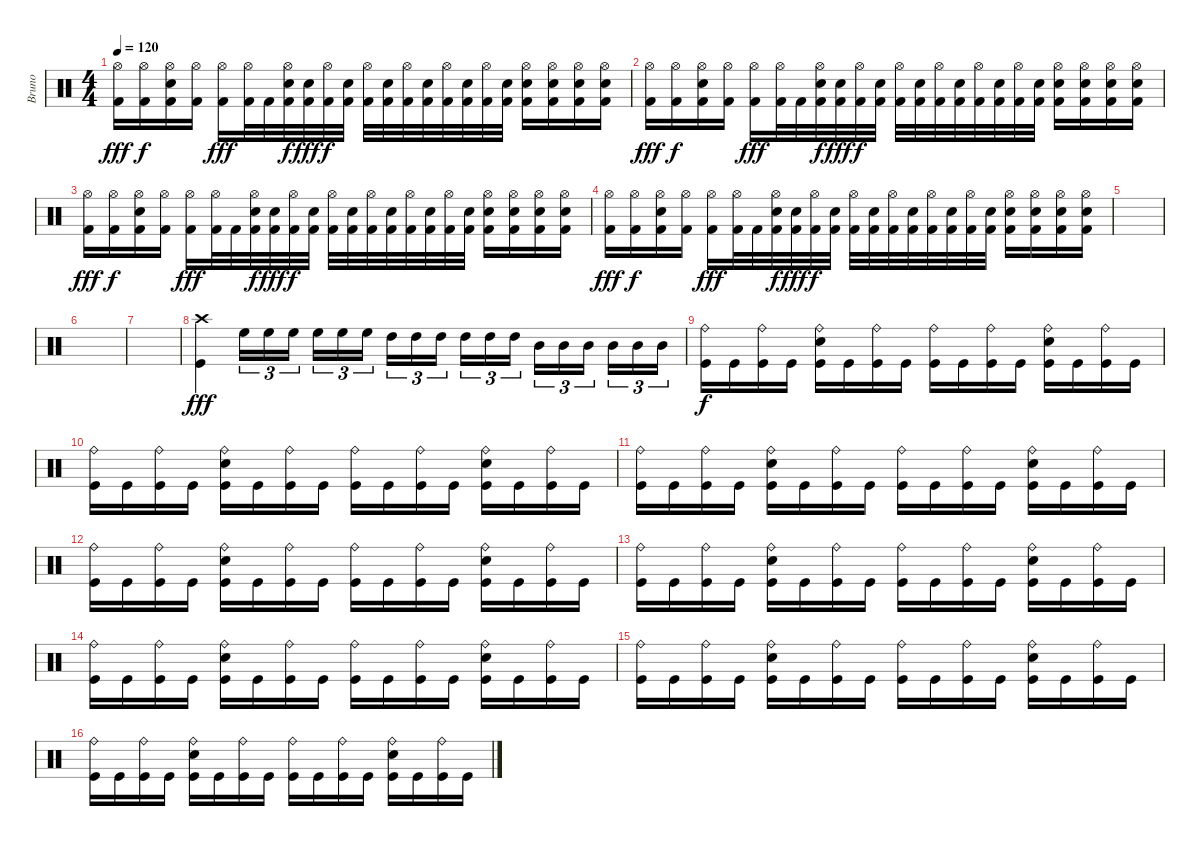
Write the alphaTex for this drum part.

\track ("Bruno" "Bruno") {instrument percussion}
\staff {score}
\articulation defaults
\ts (4 4)
\tempo 120
\clef neutral
\ks c
("Hi-Hat (open)" "Kick (hit) 2").16{dy fff} ("Hi-Hat (open)" "Kick (hit) 2").16{dy f} ("Hi-Hat (open)" "Snare (hit) 2" "Kick (hit) 2").16 ("Hi-Hat (open)" "Kick (hit) 2").16 ("Hi-Hat (open)" "Kick (hit) 2").16{dy fff} ("Hi-Hat (open)" "Kick (hit) 2").32 "Kick (hit) 2".32 ("Hi-Hat (open)" "Snare (hit) 2" "Kick (hit) 2").32{dy f} ("Snare (hit) 2" "Kick (hit) 2").32{dy fff} ("Hi-Hat (open)" "Kick (hit) 2").32{dy f} ("Snare (hit) 2" "Kick (hit) 2").32 ("Hi-Hat (open)" "Kick (hit) 2").32 ("Snare (hit) 2" "Kick (hit) 2").32 ("Hi-Hat (open)" "Kick (hit) 2").32 ("Snare (hit) 2" "Kick (hit) 2").32 ("Hi-Hat (open)" "Kick (hit) 2").32 ("Snare (hit) 2" "Kick (hit) 2").32 ("Hi-Hat (open)" "Kick (hit) 2").32 ("Snare (hit) 2" "Kick (hit) 2").32 ("Hi-Hat (open)" "Snare (hit) 2" "Kick (hit) 2").16 ("Hi-Hat (open)" "Snare (hit) 2" "Kick (hit) 2").16 ("Hi-Hat (open)" "Snare (hit) 2" "Kick (hit) 2").16 ("Hi-Hat (open)" "Snare (hit) 2" "Kick (hit) 2").16 |
("Hi-Hat (open)" "Kick (hit) 2").16{dy fff} ("Hi-Hat (open)" "Kick (hit) 2").16{dy f} ("Hi-Hat (open)" "Snare (hit) 2" "Kick (hit) 2").16 ("Hi-Hat (open)" "Kick (hit) 2").16 ("Hi-Hat (open)" "Kick (hit) 2").16{dy fff} ("Hi-Hat (open)" "Kick (hit) 2").32 "Kick (hit) 2".32 ("Hi-Hat (open)" "Snare (hit) 2" "Kick (hit) 2").32{dy f} ("Snare (hit) 2" "Kick (hit) 2").32{dy fff} ("Hi-Hat (open)" "Kick (hit) 2").32{dy f} ("Snare (hit) 2" "Kick (hit) 2").32 ("Hi-Hat (open)" "Kick (hit) 2").32 ("Snare (hit) 2" "Kick (hit) 2").32 ("Hi-Hat (open)" "Kick (hit) 2").32 ("Snare (hit) 2" "Kick (hit) 2").32 ("Hi-Hat (open)" "Kick (hit) 2").32 ("Snare (hit) 2" "Kick (hit) 2").32 ("Hi-Hat (open)" "Kick (hit) 2").32 ("Snare (hit) 2" "Kick (hit) 2").32 ("Hi-Hat (open)" "Snare (hit) 2" "Kick (hit) 2").16 ("Hi-Hat (open)" "Snare (hit) 2" "Kick (hit) 2").16 ("Hi-Hat (open)" "Snare (hit) 2" "Kick (hit) 2").16 ("Hi-Hat (open)" "Snare (hit) 2" "Kick (hit) 2").16 |
("Hi-Hat (open)" "Kick (hit) 2").16{dy fff} ("Hi-Hat (open)" "Kick (hit) 2").16{dy f} ("Hi-Hat (open)" "Snare (hit) 2" "Kick (hit) 2").16 ("Hi-Hat (open)" "Kick (hit) 2").16 ("Hi-Hat (open)" "Kick (hit) 2").16{dy fff} ("Hi-Hat (open)" "Kick (hit) 2").32 "Kick (hit) 2".32 ("Hi-Hat (open)" "Snare (hit) 2" "Kick (hit) 2").32{dy f} ("Snare (hit) 2" "Kick (hit) 2").32{dy fff} ("Hi-Hat (open)" "Kick (hit) 2").32{dy f} ("Snare (hit) 2" "Kick (hit) 2").32 ("Hi-Hat (open)" "Kick (hit) 2").32 ("Snare (hit) 2" "Kick (hit) 2").32 ("Hi-Hat (open)" "Kick (hit) 2").32 ("Snare (hit) 2" "Kick (hit) 2").32 ("Hi-Hat (open)" "Kick (hit) 2").32 ("Snare (hit) 2" "Kick (hit) 2").32 ("Hi-Hat (open)" "Kick (hit) 2").32 ("Snare (hit) 2" "Kick (hit) 2").32 ("Hi-Hat (open)" "Snare (hit) 2" "Kick (hit) 2").16 ("Hi-Hat (open)" "Snare (hit) 2" "Kick (hit) 2").16 ("Hi-Hat (open)" "Snare (hit) 2" "Kick (hit) 2").16 ("Hi-Hat (open)" "Snare (hit) 2" "Kick (hit) 2").16 |
("Hi-Hat (open)" "Kick (hit) 2").16{dy fff} ("Hi-Hat (open)" "Kick (hit) 2").16{dy f} ("Hi-Hat (open)" "Snare (hit) 2" "Kick (hit) 2").16 ("Hi-Hat (open)" "Kick (hit) 2").16 ("Hi-Hat (open)" "Kick (hit) 2").16{dy fff} ("Hi-Hat (open)" "Kick (hit) 2").32 "Kick (hit) 2".32 ("Hi-Hat (open)" "Snare (hit) 2" "Kick (hit) 2").32{dy f} ("Snare (hit) 2" "Kick (hit) 2").32{dy fff} ("Hi-Hat (open)" "Kick (hit) 2").32{dy f} ("Snare (hit) 2" "Kick (hit) 2").32 ("Hi-Hat (open)" "Kick (hit) 2").32 ("Snare (hit) 2" "Kick (hit) 2").32 ("Hi-Hat (open)" "Kick (hit) 2").32 ("Snare (hit) 2" "Kick (hit) 2").32 ("Hi-Hat (open)" "Kick (hit) 2").32 ("Snare (hit) 2" "Kick (hit) 2").32 ("Hi-Hat (open)" "Kick (hit) 2").32 ("Snare (hit) 2" "Kick (hit) 2").32 ("Hi-Hat (open)" "Snare (hit) 2" "Kick (hit) 2").16 ("Hi-Hat (open)" "Snare (hit) 2" "Kick (hit) 2").16 ("Hi-Hat (open)" "Snare (hit) 2" "Kick (hit) 2").16 ("Hi-Hat (open)" "Snare (hit) 2" "Kick (hit) 2").16 |
|
|
|
("Kick (hit)" "Crash high (hit)").4{dy fff} "High Floor Tom (hit)".16{tu (3 2)} "High Floor Tom (hit)".16{tu (3 2)} "High Floor Tom (hit)".16{tu (3 2) beam splitsecondary} "High Floor Tom (hit)".16{tu (3 2)} "High Floor Tom (hit)".16{tu (3 2)} "High Floor Tom (hit)".16{tu (3 2)} "High Tom (hit)".16{tu (3 2)} "High Tom (hit)".16{tu (3 2)} "High Tom (hit)".16{tu (3 2) beam splitsecondary} "High Tom (hit)".16{tu (3 2)} "High Tom (hit)".16{tu (3 2)} "High Tom (hit)".16{tu (3 2)} "Mid Tom (hit)".16{tu (3 2)} "Mid Tom (hit)".16{tu (3 2)} "Mid Tom (hit)".16{tu (3 2) beam splitsecondary} "Mid Tom (hit)".16{tu (3 2)} "Mid Tom (hit)".16{tu (3 2)} "Mid Tom (hit)".16{tu (3 2)} |
("Ride (bell)" "Kick (hit)").16{dy f} "Kick (hit)".16 ("Ride (bell)" "Kick (hit)").16 "Kick (hit)".16 ("Ride (bell)" "Snare (hit) 2" "Kick (hit)").16 "Kick (hit)".16 ("Ride (bell)" "Kick (hit)").16 "Kick (hit)".16 ("Ride (bell)" "Kick (hit)").16 "Kick (hit)".16 ("Ride (bell)" "Kick (hit)").16 "Kick (hit)".16 ("Ride (bell)" "Snare (hit) 2" "Kick (hit)").16 "Kick (hit)".16 ("Ride (bell)" "Kick (hit)").16 "Kick (hit)".16 |
("Ride (bell)" "Kick (hit)").16 "Kick (hit)".16 ("Ride (bell)" "Kick (hit)").16 "Kick (hit)".16 ("Ride (bell)" "Snare (hit) 2" "Kick (hit)").16 "Kick (hit)".16 ("Ride (bell)" "Kick (hit)").16 "Kick (hit)".16 ("Ride (bell)" "Kick (hit)").16 "Kick (hit)".16 ("Ride (bell)" "Kick (hit)").16 "Kick (hit)".16 ("Ride (bell)" "Snare (hit) 2" "Kick (hit)").16 "Kick (hit)".16 ("Ride (bell)" "Kick (hit)").16 "Kick (hit)".16 |
("Ride (bell)" "Kick (hit)").16 "Kick (hit)".16 ("Ride (bell)" "Kick (hit)").16 "Kick (hit)".16 ("Ride (bell)" "Snare (hit) 2" "Kick (hit)").16 "Kick (hit)".16 ("Ride (bell)" "Kick (hit)").16 "Kick (hit)".16 ("Ride (bell)" "Kick (hit)").16 "Kick (hit)".16 ("Ride (bell)" "Kick (hit)").16 "Kick (hit)".16 ("Ride (bell)" "Snare (hit) 2" "Kick (hit)").16 "Kick (hit)".16 ("Ride (bell)" "Kick (hit)").16 "Kick (hit)".16 |
("Ride (bell)" "Kick (hit)").16 "Kick (hit)".16 ("Ride (bell)" "Kick (hit)").16 "Kick (hit)".16 ("Ride (bell)" "Snare (hit) 2" "Kick (hit)").16 "Kick (hit)".16 ("Ride (bell)" "Kick (hit)").16 "Kick (hit)".16 ("Ride (bell)" "Kick (hit)").16 "Kick (hit)".16 ("Ride (bell)" "Kick (hit)").16 "Kick (hit)".16 ("Ride (bell)" "Snare (hit) 2" "Kick (hit)").16 "Kick (hit)".16 ("Ride (bell)" "Kick (hit)").16 "Kick (hit)".16 |
("Ride (bell)" "Kick (hit)").16 "Kick (hit)".16 ("Ride (bell)" "Kick (hit)").16 "Kick (hit)".16 ("Ride (bell)" "Snare (hit) 2" "Kick (hit)").16 "Kick (hit)".16 ("Ride (bell)" "Kick (hit)").16 "Kick (hit)".16 ("Ride (bell)" "Kick (hit)").16 "Kick (hit)".16 ("Ride (bell)" "Kick (hit)").16 "Kick (hit)".16 ("Ride (bell)" "Snare (hit) 2" "Kick (hit)").16 "Kick (hit)".16 ("Ride (bell)" "Kick (hit)").16 "Kick (hit)".16 |
("Ride (bell)" "Kick (hit)").16 "Kick (hit)".16 ("Ride (bell)" "Kick (hit)").16 "Kick (hit)".16 ("Ride (bell)" "Snare (hit) 2" "Kick (hit)").16 "Kick (hit)".16 ("Ride (bell)" "Kick (hit)").16 "Kick (hit)".16 ("Ride (bell)" "Kick (hit)").16 "Kick (hit)".16 ("Ride (bell)" "Kick (hit)").16 "Kick (hit)".16 ("Ride (bell)" "Snare (hit) 2" "Kick (hit)").16 "Kick (hit)".16 ("Ride (bell)" "Kick (hit)").16 "Kick (hit)".16 |
("Ride (bell)" "Kick (hit)").16 "Kick (hit)".16 ("Ride (bell)" "Kick (hit)").16 "Kick (hit)".16 ("Ride (bell)" "Snare (hit) 2" "Kick (hit)").16 "Kick (hit)".16 ("Ride (bell)" "Kick (hit)").16 "Kick (hit)".16 ("Ride (bell)" "Kick (hit)").16 "Kick (hit)".16 ("Ride (bell)" "Kick (hit)").16 "Kick (hit)".16 ("Ride (bell)" "Snare (hit) 2" "Kick (hit)").16 "Kick (hit)".16 ("Ride (bell)" "Kick (hit)").16 "Kick (hit)".16 |
("Ride (bell)" "Kick (hit)").16 "Kick (hit)".16 ("Ride (bell)" "Kick (hit)").16 "Kick (hit)".16 ("Ride (bell)" "Snare (hit) 2" "Kick (hit)").16 "Kick (hit)".16 ("Ride (bell)" "Kick (hit)").16 "Kick (hit)".16 ("Ride (bell)" "Kick (hit)").16 "Kick (hit)".16 ("Ride (bell)" "Kick (hit)").16 "Kick (hit)".16 ("Ride (bell)" "Snare (hit) 2" "Kick (hit)").16 "Kick (hit)".16 ("Ride (bell)" "Kick (hit)").16 "Kick (hit)".16
